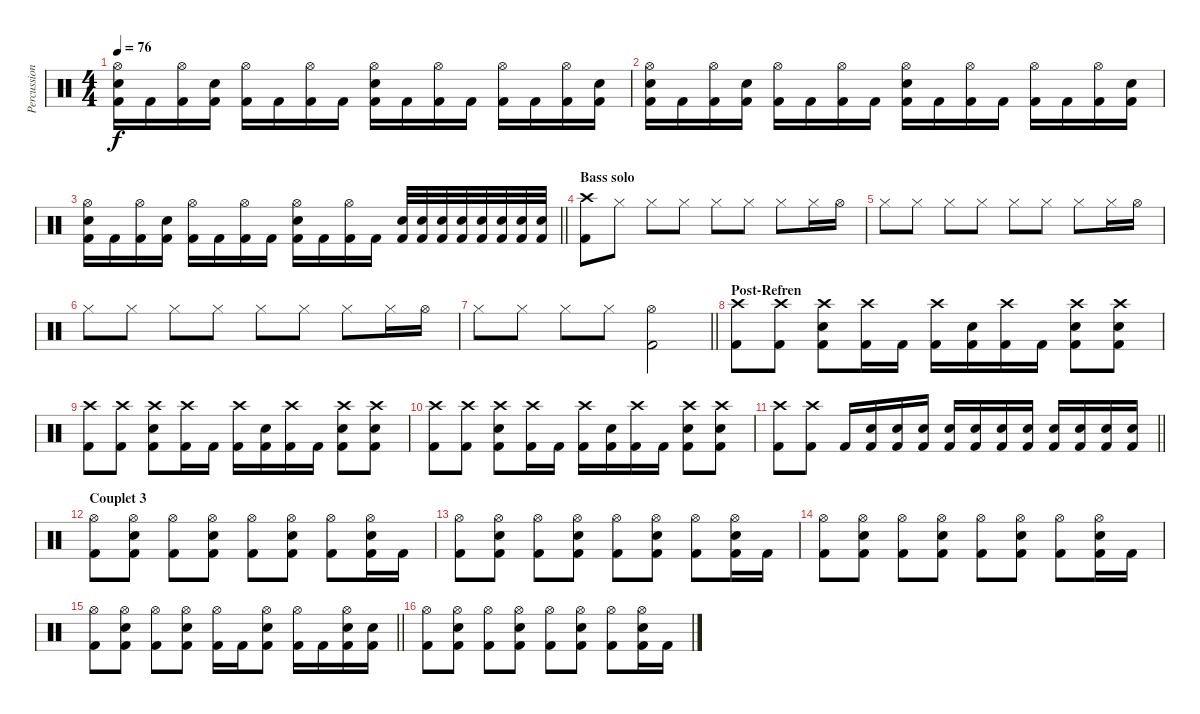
\track ("Percussion" "Percussion") {instrument percussion}
\staff {score}
\articulation defaults
\ts (4 4)
\tempo 76
\clef neutral
\ks c
("Hi-Hat (open)" "Kick (hit) 2" "Snare (hit) 2").16{dy f} "Kick (hit) 2".16 ("Hi-Hat (open)" "Kick (hit) 2").16 ("Kick (hit) 2" "Snare (hit) 2").16 ("Hi-Hat (open)" "Kick (hit) 2").16 "Kick (hit) 2".16 ("Hi-Hat (open)" "Kick (hit) 2").16 "Kick (hit) 2".16 ("Hi-Hat (open)" "Kick (hit) 2" "Snare (hit) 2").16 "Kick (hit) 2".16 ("Hi-Hat (open)" "Kick (hit) 2").16 "Kick (hit) 2".16 ("Hi-Hat (open)" "Kick (hit) 2").16 "Kick (hit) 2".16 ("Hi-Hat (open)" "Kick (hit) 2").16 ("Kick (hit) 2" "Snare (hit) 2").16 |
("Hi-Hat (open)" "Kick (hit) 2" "Snare (hit) 2").16 "Kick (hit) 2".16 ("Hi-Hat (open)" "Kick (hit) 2").16 ("Kick (hit) 2" "Snare (hit) 2").16 ("Hi-Hat (open)" "Kick (hit) 2").16 "Kick (hit) 2".16 ("Hi-Hat (open)" "Kick (hit) 2").16 "Kick (hit) 2".16 ("Hi-Hat (open)" "Kick (hit) 2" "Snare (hit) 2").16 "Kick (hit) 2".16 ("Hi-Hat (open)" "Kick (hit) 2").16 "Kick (hit) 2".16 ("Hi-Hat (open)" "Kick (hit) 2").16 "Kick (hit) 2".16 ("Hi-Hat (open)" "Kick (hit) 2").16 ("Kick (hit) 2" "Snare (hit) 2").16 |
\barLineRight lightlight
("Hi-Hat (open)" "Kick (hit) 2" "Snare (hit) 2").16 "Kick (hit) 2".16 ("Hi-Hat (open)" "Kick (hit) 2").16 ("Kick (hit) 2" "Snare (hit) 2").16 ("Hi-Hat (open)" "Kick (hit) 2").16 "Kick (hit) 2".16 ("Hi-Hat (open)" "Kick (hit) 2").16 "Kick (hit) 2".16 ("Hi-Hat (open)" "Kick (hit) 2" "Snare (hit) 2").16 "Kick (hit) 2".16 ("Hi-Hat (open)" "Kick (hit) 2").16 "Kick (hit) 2".16 ("Kick (hit) 2" "Snare (hit) 2").32 ("Kick (hit) 2" "Snare (hit) 2").32 ("Kick (hit) 2" "Snare (hit) 2").32 ("Kick (hit) 2" "Snare (hit) 2").32 ("Kick (hit) 2" "Snare (hit) 2").32 ("Kick (hit) 2" "Snare (hit) 2").32 ("Kick (hit) 2" "Snare (hit) 2").32 ("Kick (hit) 2" "Snare (hit) 2").32 |
\section ("" "Bass solo")
("Crash high (hit)" "Kick (hit) 2").8 "Hi-Hat (closed)".8 "Hi-Hat (closed)".8 "Hi-Hat (closed)".8 "Hi-Hat (closed)".8 "Hi-Hat (closed)".8 "Hi-Hat (closed)".8 "Hi-Hat (closed)".16 "Hi-Hat (open)".16 |
"Hi-Hat (closed)".8 "Hi-Hat (closed)".8 "Hi-Hat (closed)".8 "Hi-Hat (closed)".8 "Hi-Hat (closed)".8 "Hi-Hat (closed)".8 "Hi-Hat (closed)".8 "Hi-Hat (closed)".16 "Hi-Hat (open)".16 |
"Hi-Hat (closed)".8 "Hi-Hat (closed)".8 "Hi-Hat (closed)".8 "Hi-Hat (closed)".8 "Hi-Hat (closed)".8 "Hi-Hat (closed)".8 "Hi-Hat (closed)".8 "Hi-Hat (closed)".16 "Hi-Hat (open)".16 |
\barLineRight lightlight "Hi-Hat (closed)".8 "Hi-Hat (closed)".8 "Hi-Hat (closed)".8 "Hi-Hat (closed)".8
("Hi-Hat (open)" "Kick (hit) 2").2 |
\section ("" "Post-Refren ")
("Crash high (hit)" "Kick (hit) 2").8 ("Crash high (hit)" "Kick (hit) 2").8 ("Crash high (hit)" "Snare (hit) 2" "Kick (hit) 2").8 ("Crash high (hit)" "Kick (hit) 2").16 "Kick (hit) 2".16 ("Crash high (hit)" "Kick (hit) 2").16 ("Snare (hit) 2" "Kick (hit) 2").16 ("Crash high (hit)" "Kick (hit) 2").16 "Kick (hit) 2".16 ("Crash high (hit)" "Snare (hit) 2" "Kick (hit) 2").8 ("Crash high (hit)" "Snare (hit) 2" "Kick (hit) 2").8 |
("Crash high (hit)" "Kick (hit) 2").8 ("Crash high (hit)" "Kick (hit) 2").8 ("Crash high (hit)" "Snare (hit) 2" "Kick (hit) 2").8 ("Crash high (hit)" "Kick (hit) 2").16 "Kick (hit) 2".16 ("Crash high (hit)" "Kick (hit) 2").16 ("Snare (hit) 2" "Kick (hit) 2").16 ("Crash high (hit)" "Kick (hit) 2").16 "Kick (hit) 2".16 ("Crash high (hit)" "Snare (hit) 2" "Kick (hit) 2").8 ("Crash high (hit)" "Snare (hit) 2" "Kick (hit) 2").8 |
("Crash high (hit)" "Kick (hit) 2").8 ("Crash high (hit)" "Kick (hit) 2").8 ("Crash high (hit)" "Snare (hit) 2" "Kick (hit) 2").8 ("Crash high (hit)" "Kick (hit) 2").16 "Kick (hit) 2".16 ("Crash high (hit)" "Kick (hit) 2").16 ("Snare (hit) 2" "Kick (hit) 2").16 ("Crash high (hit)" "Kick (hit) 2").16 "Kick (hit) 2".16 ("Crash high (hit)" "Snare (hit) 2" "Kick (hit) 2").8 ("Crash high (hit)" "Snare (hit) 2" "Kick (hit) 2").8 |
\barLineRight lightlight
("Crash high (hit)" "Kick (hit) 2").8 ("Crash high (hit)" "Kick (hit) 2").8 "Kick (hit) 2".16 ("Snare (hit) 2" "Kick (hit) 2").16 ("Snare (hit) 2" "Kick (hit) 2").16 ("Snare (hit) 2" "Kick (hit) 2").16 ("Snare (hit) 2" "Kick (hit) 2").16 ("Snare (hit) 2" "Kick (hit) 2").16 ("Snare (hit) 2" "Kick (hit) 2").16 ("Snare (hit) 2" "Kick (hit) 2").16 ("Snare (hit) 2" "Kick (hit) 2").16 ("Snare (hit) 2" "Kick (hit) 2").16 ("Snare (hit) 2" "Kick (hit) 2").16 ("Snare (hit) 2" "Kick (hit) 2").16 |
\section ("" "Couplet 3")
("Hi-Hat (open)" "Kick (hit) 2").8 ("Hi-Hat (open)" "Snare (hit) 2" "Kick (hit) 2").8 ("Hi-Hat (open)" "Kick (hit) 2").8 ("Hi-Hat (open)" "Snare (hit) 2" "Kick (hit) 2").8 ("Hi-Hat (open)" "Kick (hit) 2").8 ("Hi-Hat (open)" "Snare (hit) 2" "Kick (hit) 2").8 ("Hi-Hat (open)" "Kick (hit) 2").8 ("Hi-Hat (open)" "Snare (hit) 2" "Kick (hit) 2").16 "Kick (hit) 2".16 |
("Hi-Hat (open)" "Kick (hit) 2").8 ("Hi-Hat (open)" "Kick (hit) 2" "Snare (hit) 2").8 ("Hi-Hat (open)" "Kick (hit) 2").8 ("Hi-Hat (open)" "Kick (hit) 2" "Snare (hit) 2").8 ("Hi-Hat (open)" "Kick (hit) 2").8 ("Hi-Hat (open)" "Kick (hit) 2" "Snare (hit) 2").8 ("Hi-Hat (open)" "Kick (hit) 2").8 ("Hi-Hat (open)" "Kick (hit) 2" "Snare (hit) 2").16 "Kick (hit) 2".16 |
("Hi-Hat (open)" "Kick (hit) 2").8 ("Hi-Hat (open)" "Kick (hit) 2" "Snare (hit) 2").8 ("Hi-Hat (open)" "Kick (hit) 2").8 ("Hi-Hat (open)" "Kick (hit) 2" "Snare (hit) 2").8 ("Hi-Hat (open)" "Kick (hit) 2").8 ("Hi-Hat (open)" "Kick (hit) 2" "Snare (hit) 2").8 ("Hi-Hat (open)" "Kick (hit) 2").8 ("Hi-Hat (open)" "Kick (hit) 2" "Snare (hit) 2").16 "Kick (hit) 2".16 |
\barLineRight lightlight
("Hi-Hat (open)" "Kick (hit) 2").8 ("Hi-Hat (open)" "Kick (hit) 2" "Snare (hit) 2").8 ("Hi-Hat (open)" "Kick (hit) 2").8 ("Hi-Hat (open)" "Kick (hit) 2" "Snare (hit) 2").8 ("Hi-Hat (open)" "Kick (hit) 2").16 "Kick (hit) 2".16 ("Hi-Hat (open)" "Kick (hit) 2" "Snare (hit) 2").8 ("Hi-Hat (open)" "Kick (hit) 2").16 "Kick (hit) 2".16 ("Hi-Hat (open)" "Kick (hit) 2" "Snare (hit) 2").16 ("Kick (hit) 2" "Snare (hit) 2").16 |
("Hi-Hat (open)" "Kick (hit) 2").8 ("Hi-Hat (open)" "Snare (hit) 2" "Kick (hit) 2").8 ("Hi-Hat (open)" "Kick (hit) 2").8 ("Hi-Hat (open)" "Snare (hit) 2" "Kick (hit) 2").8 ("Hi-Hat (open)" "Kick (hit) 2").8 ("Hi-Hat (open)" "Snare (hit) 2" "Kick (hit) 2").8 ("Hi-Hat (open)" "Kick (hit) 2").8 ("Hi-Hat (open)" "Snare (hit) 2" "Kick (hit) 2").16 "Kick (hit) 2".16
